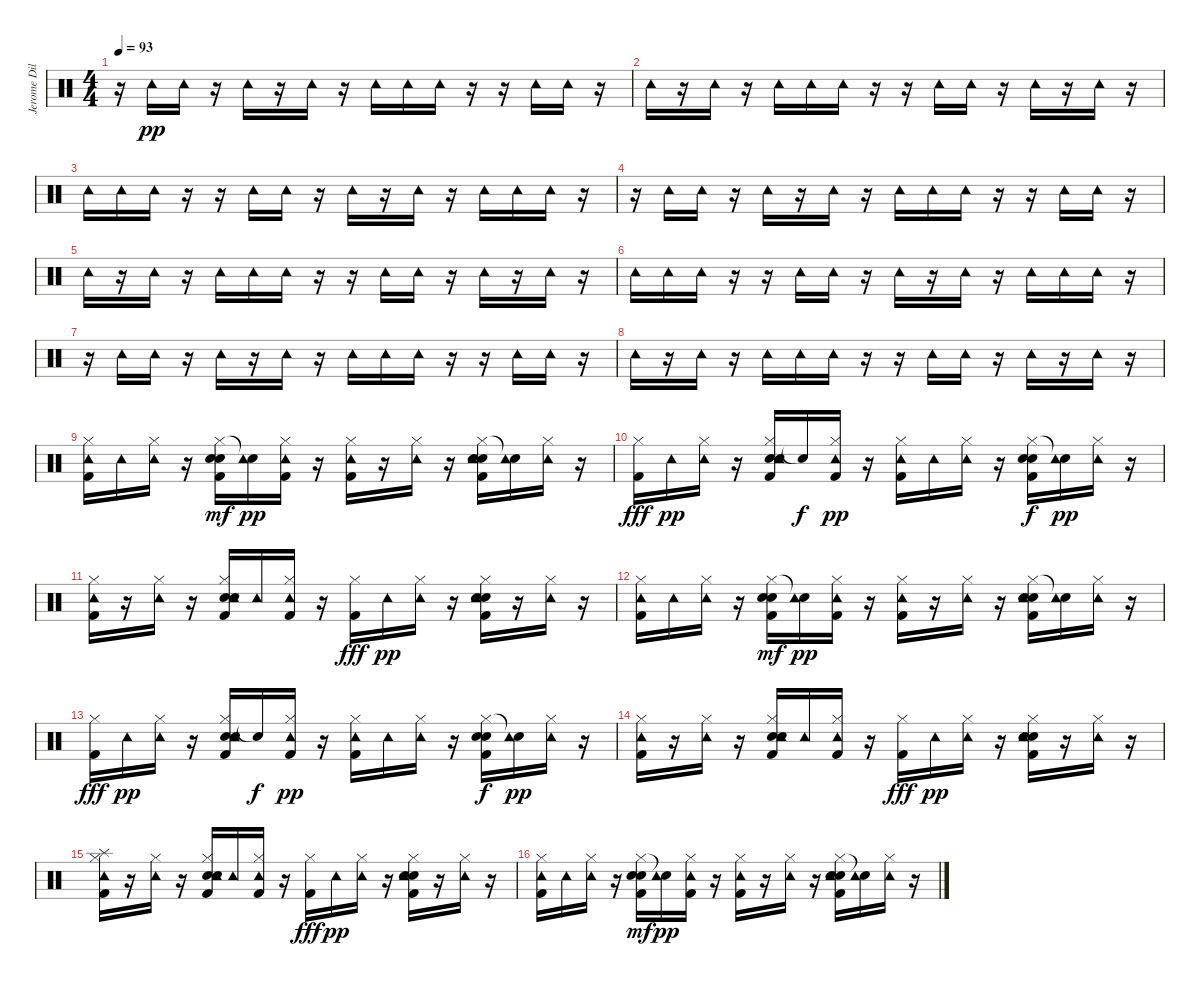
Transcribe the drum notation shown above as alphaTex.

\track ("Jerome Dillon" "Jerome Dil") {instrument percussion}
\staff {score}
\articulation defaults
\ts (4 4)
\tempo 93
\clef neutral
\ks c
r.16{dy pp} "Tambourine (hit)".16 "Tambourine (hit)".16 r.16 "Tambourine (hit)".16 r.16 "Tambourine (hit)".16 r.16 "Tambourine (hit)".16 "Tambourine (hit)".16 "Tambourine (hit)".16 r.16 r.16 "Tambourine (hit)".16 "Tambourine (hit)".16 r.16 |
"Tambourine (hit)".16 r.16 "Tambourine (hit)".16 r.16 "Tambourine (hit)".16 "Tambourine (hit)".16 "Tambourine (hit)".16 r.16 r.16 "Tambourine (hit)".16 "Tambourine (hit)".16 r.16 "Tambourine (hit)".16 r.16 "Tambourine (hit)".16 r.16 |
"Tambourine (hit)".16 "Tambourine (hit)".16 "Tambourine (hit)".16 r.16 r.16 "Tambourine (hit)".16 "Tambourine (hit)".16 r.16 "Tambourine (hit)".16 r.16 "Tambourine (hit)".16 r.16 "Tambourine (hit)".16 "Tambourine (hit)".16 "Tambourine (hit)".16 r.16 |
r.16 "Tambourine (hit)".16 "Tambourine (hit)".16 r.16 "Tambourine (hit)".16 r.16 "Tambourine (hit)".16 r.16 "Tambourine (hit)".16 "Tambourine (hit)".16 "Tambourine (hit)".16 r.16 r.16 "Tambourine (hit)".16 "Tambourine (hit)".16 r.16 |
"Tambourine (hit)".16 r.16 "Tambourine (hit)".16 r.16 "Tambourine (hit)".16 "Tambourine (hit)".16 "Tambourine (hit)".16 r.16 r.16 "Tambourine (hit)".16 "Tambourine (hit)".16 r.16 "Tambourine (hit)".16 r.16 "Tambourine (hit)".16 r.16 |
"Tambourine (hit)".16 "Tambourine (hit)".16 "Tambourine (hit)".16 r.16 r.16 "Tambourine (hit)".16 "Tambourine (hit)".16 r.16 "Tambourine (hit)".16 r.16 "Tambourine (hit)".16 r.16 "Tambourine (hit)".16 "Tambourine (hit)".16 "Tambourine (hit)".16 r.16 |
r.16 "Tambourine (hit)".16 "Tambourine (hit)".16 r.16 "Tambourine (hit)".16 r.16 "Tambourine (hit)".16 r.16 "Tambourine (hit)".16 "Tambourine (hit)".16 "Tambourine (hit)".16 r.16 r.16 "Tambourine (hit)".16 "Tambourine (hit)".16 r.16 |
"Tambourine (hit)".16 r.16 "Tambourine (hit)".16 r.16 "Tambourine (hit)".16 "Tambourine (hit)".16 "Tambourine (hit)".16 r.16 r.16 "Tambourine (hit)".16 "Tambourine (hit)".16 r.16 "Tambourine (hit)".16 r.16 "Tambourine (hit)".16 r.16 |
("Hi-Hat (closed)" "Kick (hit) 2" "Tambourine (hit)").16 "Tambourine (hit)".16 ("Hi-Hat (closed)" "Tambourine (hit)").16 r.16 ("Hi-Hat (closed)" "Hand Clap (hit)" "Snare (hit) 2" "Kick (hit) 2").16{dy mf} ("Snare (hit)"{t} "Tambourine (hit)").16{dy pp} ("Hi-Hat (closed)" "Kick (hit) 2" "Tambourine (hit)").16 r.16 ("Hi-Hat (closed)" "Kick (hit) 2" "Tambourine (hit)").16 r.16 ("Hi-Hat (closed)" "Tambourine (hit)").16 r.16 ("Hi-Hat (closed)" "Hand Clap (hit)" "Snare (hit) 2" "Kick (hit) 2" "Tambourine (hit)").16 ("Snare (hit)"{t} "Tambourine (hit)").16 ("Hi-Hat (closed)" "Tambourine (hit)").16 r.16 |
("Hi-Hat (closed)" "Kick (hit) 2").16{dy fff} "Tambourine (hit)".16{dy pp} ("Hi-Hat (closed)" "Tambourine (hit)").16 r.16 ("Hi-Hat (closed)" "Hand Clap (hit)" "Snare (hit) 2" "Kick (hit) 2" "Tambourine (hit)").16 "Snare (hit)"{t}.16{dy f} ("Hi-Hat (closed)" "Kick (hit) 2" "Tambourine (hit)").16{dy pp} r.16 ("Hi-Hat (closed)" "Kick (hit) 2" "Tambourine (hit)").16 "Tambourine (hit)".16 ("Hi-Hat (closed)" "Tambourine (hit)").16 r.16 ("Hi-Hat (closed)" "Hand Clap (hit)" "Snare (hit) 2" "Kick (hit) 2").16{dy f} ("Snare (hit)"{t} "Tambourine (hit)").16{dy pp} ("Hi-Hat (closed)" "Tambourine (hit)").16 r.16 |
("Hi-Hat (closed)" "Kick (hit) 2" "Tambourine (hit)").16 r.16 ("Hi-Hat (closed)" "Tambourine (hit)").16 r.16 ("Hi-Hat (closed)" "Hand Clap (hit)" "Snare (hit) 2" "Kick (hit) 2" "Tambourine (hit)").16 "Tambourine (hit)".16 ("Hi-Hat (closed)" "Kick (hit) 2" "Tambourine (hit)").16 r.16 ("Hi-Hat (closed)" "Kick (hit) 2").16{dy fff} "Tambourine (hit)".16{dy pp} ("Hi-Hat (closed)" "Tambourine (hit)").16 r.16 ("Hi-Hat (closed)" "Hand Clap (hit)" "Snare (hit) 2" "Kick (hit) 2" "Tambourine (hit)").16 r.16 ("Hi-Hat (closed)" "Tambourine (hit)").16 r.16 |
("Hi-Hat (closed)" "Kick (hit) 2" "Tambourine (hit)").16 "Tambourine (hit)".16 ("Hi-Hat (closed)" "Tambourine (hit)").16 r.16 ("Hi-Hat (closed)" "Hand Clap (hit)" "Snare (hit) 2" "Kick (hit) 2").16{dy mf} ("Snare (hit)"{t} "Tambourine (hit)").16{dy pp} ("Hi-Hat (closed)" "Kick (hit) 2" "Tambourine (hit)").16 r.16 ("Hi-Hat (closed)" "Kick (hit) 2" "Tambourine (hit)").16 r.16 ("Hi-Hat (closed)" "Tambourine (hit)").16 r.16 ("Hi-Hat (closed)" "Hand Clap (hit)" "Snare (hit) 2" "Kick (hit) 2" "Tambourine (hit)").16 ("Snare (hit)"{t} "Tambourine (hit)").16 ("Hi-Hat (closed)" "Tambourine (hit)").16 r.16 |
("Hi-Hat (closed)" "Kick (hit) 2").16{dy fff} "Tambourine (hit)".16{dy pp} ("Hi-Hat (closed)" "Tambourine (hit)").16 r.16 ("Hi-Hat (closed)" "Hand Clap (hit)" "Snare (hit) 2" "Kick (hit) 2" "Tambourine (hit)").16 "Snare (hit)"{t}.16{dy f} ("Hi-Hat (closed)" "Kick (hit) 2" "Tambourine (hit)").16{dy pp} r.16 ("Hi-Hat (closed)" "Kick (hit) 2" "Tambourine (hit)").16 "Tambourine (hit)".16 ("Hi-Hat (closed)" "Tambourine (hit)").16 r.16 ("Hi-Hat (closed)" "Hand Clap (hit)" "Snare (hit) 2" "Kick (hit) 2").16{dy f} ("Snare (hit)"{t} "Tambourine (hit)").16{dy pp} ("Hi-Hat (closed)" "Tambourine (hit)").16 r.16 |
("Hi-Hat (closed)" "Kick (hit) 2" "Tambourine (hit)").16 r.16 ("Hi-Hat (closed)" "Tambourine (hit)").16 r.16 ("Hi-Hat (closed)" "Hand Clap (hit)" "Snare (hit) 2" "Kick (hit) 2" "Tambourine (hit)").16 "Tambourine (hit)".16 ("Hi-Hat (closed)" "Kick (hit) 2" "Tambourine (hit)").16 r.16 ("Hi-Hat (closed)" "Kick (hit) 2").16{dy fff} "Tambourine (hit)".16{dy pp} ("Hi-Hat (closed)" "Tambourine (hit)").16 r.16 ("Hi-Hat (closed)" "Hand Clap (hit)" "Snare (hit) 2" "Kick (hit) 2" "Tambourine (hit)").16 r.16 ("Hi-Hat (closed)" "Tambourine (hit)").16 r.16 |
("Hi-Hat (closed)" "Splash (hit)" "Kick (hit) 2" "Tambourine (hit)").16 r.16 ("Hi-Hat (closed)" "Tambourine (hit)").16 r.16 ("Hi-Hat (closed)" "Hand Clap (hit)" "Snare (hit) 2" "Kick (hit) 2" "Tambourine (hit)").16 "Tambourine (hit)".16 ("Hi-Hat (closed)" "Kick (hit) 2" "Tambourine (hit)").16 r.16 ("Hi-Hat (closed)" "Kick (hit) 2").16{dy fff} "Tambourine (hit)".16{dy pp} ("Hi-Hat (closed)" "Tambourine (hit)").16 r.16 ("Hi-Hat (closed)" "Hand Clap (hit)" "Snare (hit) 2" "Kick (hit) 2" "Tambourine (hit)").16 r.16 ("Hi-Hat (closed)" "Tambourine (hit)").16 r.16 |
("Hi-Hat (closed)" "Kick (hit) 2" "Tambourine (hit)").16 "Tambourine (hit)".16 ("Hi-Hat (closed)" "Tambourine (hit)").16 r.16 ("Hi-Hat (closed)" "Hand Clap (hit)" "Snare (hit) 2" "Kick (hit) 2").16{dy mf} ("Snare (hit)"{t} "Tambourine (hit)").16{dy pp} ("Hi-Hat (closed)" "Kick (hit) 2" "Tambourine (hit)").16 r.16 ("Hi-Hat (closed)" "Kick (hit) 2" "Tambourine (hit)").16 r.16 ("Hi-Hat (closed)" "Tambourine (hit)").16 r.16 ("Hi-Hat (closed)" "Hand Clap (hit)" "Snare (hit) 2" "Kick (hit) 2" "Tambourine (hit)").16 ("Snare (hit)"{t} "Tambourine (hit)").16 ("Hi-Hat (closed)" "Tambourine (hit)").16 r.16
